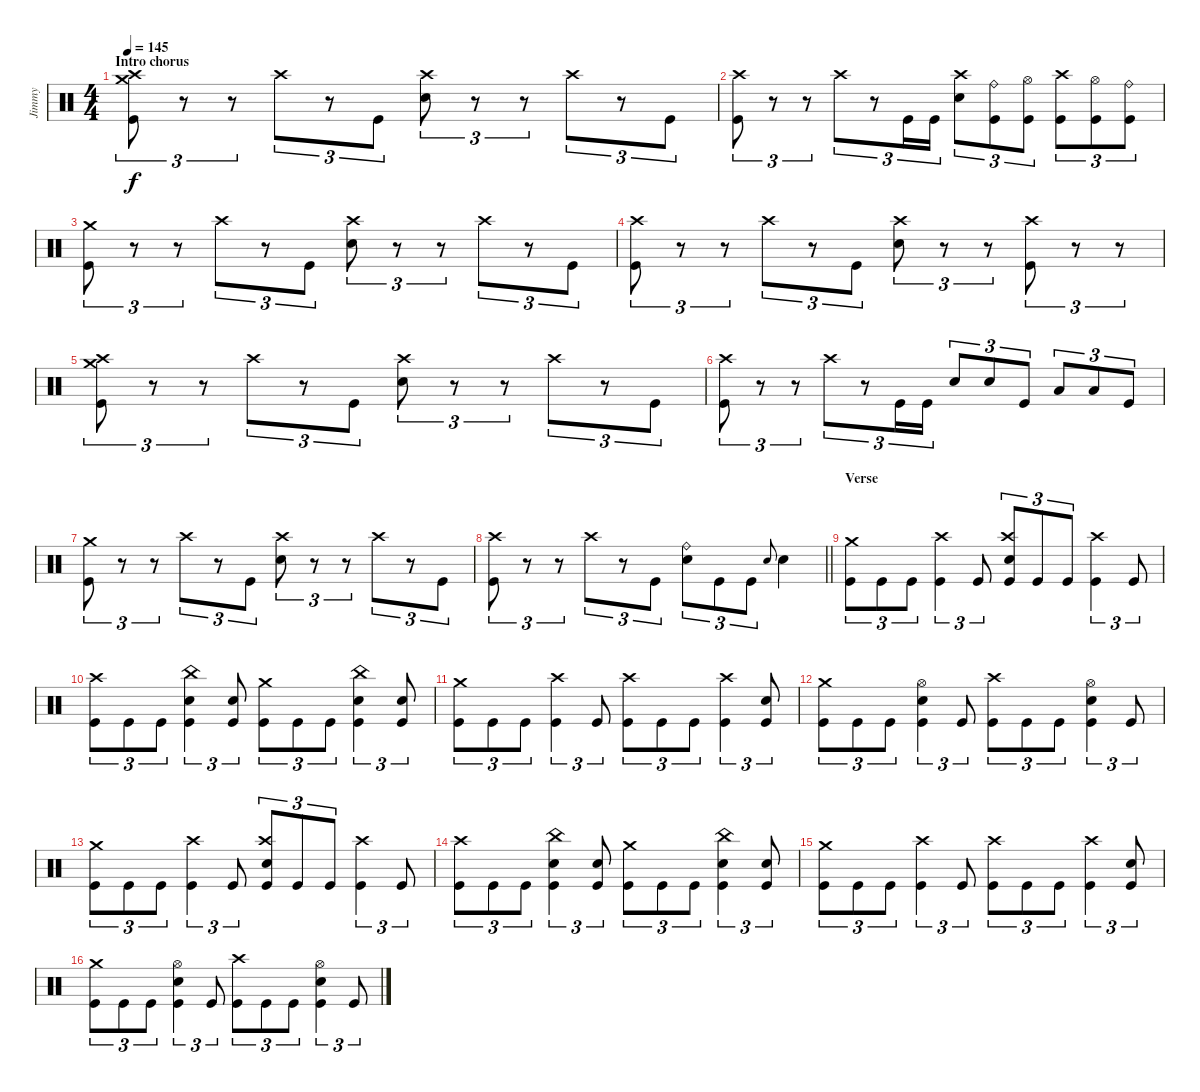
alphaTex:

\track ("Jimmy" "Jimmy") {instrument percussion}
\staff {score}
\articulation defaults
\ts (4 4)
\section ("" "Intro chorus")
\tempo 145
\clef neutral
\ks c
("Kick (hit)" "Crash high (hit)" "Crash medium (hit)").8{tu (3 2) dy f} r.8{tu (3 2)} r.8{tu (3 2)} "Crash high (hit)".8{tu (3 2)} r.8{tu (3 2)} "Kick (hit)".8{tu (3 2)} ("Crash high (hit)" "Snare (hit) 2").8{tu (3 2)} r.8{tu (3 2)} r.8{tu (3 2)} "Crash high (hit)".8{tu (3 2)} r.8{tu (3 2)} "Kick (hit)".8{tu (3 2)} |
("Kick (hit)" "Crash high (hit)").8{tu (3 2)} r.8{tu (3 2)} r.8{tu (3 2)} "Crash high (hit)".8{tu (3 2)} r.8{tu (3 2)} "Kick (hit)".16{tu (3 2)} "Kick (hit)".16{tu (3 2)} ("Crash high (hit)" "Snare (hit) 2").8{tu (3 2)} ("Kick (hit)" "Ride (bell)").8{tu (3 2)} ("Kick (hit)" "Hi-Hat (open)").8{tu (3 2)} ("Crash high (hit)" "Kick (hit)").8{tu (3 2)} ("Kick (hit)" "Hi-Hat (open)").8{tu (3 2)} ("Kick (hit)" "Ride (bell)").8{tu (3 2)} |
("Kick (hit)" "Crash medium (hit)").8{tu (3 2)} r.8{tu (3 2)} r.8{tu (3 2)} "Crash high (hit)".8{tu (3 2)} r.8{tu (3 2)} "Kick (hit)".8{tu (3 2)} ("Crash high (hit)" "Snare (hit) 2").8{tu (3 2)} r.8{tu (3 2)} r.8{tu (3 2)} "Crash high (hit)".8{tu (3 2)} r.8{tu (3 2)} "Kick (hit)".8{tu (3 2)} |
("Kick (hit)" "Crash high (hit)").8{tu (3 2)} r.8{tu (3 2)} r.8{tu (3 2)} "Crash high (hit)".8{tu (3 2)} r.8{tu (3 2)} "Kick (hit)".8{tu (3 2)} ("Crash high (hit)" "Snare (hit) 2").8{tu (3 2)} r.8{tu (3 2)} r.8{tu (3 2)} ("Crash high (hit)" "Kick (hit)").8{tu (3 2)} r.8{tu (3 2)} r.8{tu (3 2)} |
("Kick (hit)" "Crash high (hit)" "Crash medium (hit)").8{tu (3 2)} r.8{tu (3 2)} r.8{tu (3 2)} "Crash high (hit)".8{tu (3 2)} r.8{tu (3 2)} "Kick (hit)".8{tu (3 2)} ("Crash high (hit)" "Snare (hit) 2").8{tu (3 2)} r.8{tu (3 2)} r.8{tu (3 2)} "Crash high (hit)".8{tu (3 2)} r.8{tu (3 2)} "Kick (hit)".8{tu (3 2)} |
("Kick (hit)" "Crash high (hit)").8{tu (3 2)} r.8{tu (3 2)} r.8{tu (3 2)} "Crash high (hit)".8{tu (3 2)} r.8{tu (3 2)} "Kick (hit)".16{tu (3 2)} "Kick (hit)".16{tu (3 2)} "Snare (hit) 2".8{tu (3 2)} "Snare (hit) 2".8{tu (3 2)} "Kick (hit)".8{tu (3 2)} "Low Tom (hit)".8{tu (3 2)} "Low Tom (hit)".8{tu (3 2)} "Kick (hit)".8{tu (3 2)} |
("Kick (hit)" "Crash medium (hit)").8{tu (3 2)} r.8{tu (3 2)} r.8{tu (3 2)} "Crash high (hit)".8{tu (3 2)} r.8{tu (3 2)} "Kick (hit)".8{tu (3 2)} ("Crash high (hit)" "Snare (hit) 2").8{tu (3 2)} r.8{tu (3 2)} r.8{tu (3 2)} "Crash high (hit)".8{tu (3 2)} r.8{tu (3 2)} "Kick (hit)".8{tu (3 2)} |
\barLineRight lightlight
("Kick (hit)" "Crash high (hit)").8{tu (3 2)} r.8{tu (3 2)} r.8{tu (3 2)} "Crash high (hit)".8{tu (3 2)} r.8{tu (3 2)} "Kick (hit)".8{tu (3 2)} ("Ride (bell)" "Snare (hit) 2").8{tu (3 2)} "Kick (hit)".8{tu (3 2)} "Kick (hit)".8{tu (3 2)} "Snare (hit) 2".8{gr onbeat} "Snare (hit) 2".4 |
\section ("" "Verse")
("Crash medium (hit)" "Kick (hit)").8{tu (3 2)} "Kick (hit)".8{tu (3 2)} "Kick (hit)".8{tu (3 2)} ("Kick (hit)" "Crash high (hit)").4{tu (3 2)} "Kick (hit)".8{tu (3 2)} ("Snare (hit) 2" "Kick (hit)" "Crash high (hit)").8{tu (3 2)} "Kick (hit)".8{tu (3 2)} "Kick (hit)".8{tu (3 2)} ("Kick (hit)" "Crash high (hit)").4{tu (3 2)} "Kick (hit)".8{tu (3 2)} |
("Kick (hit)" "Crash high (hit)").8{tu (3 2)} "Kick (hit)".8{tu (3 2)} "Kick (hit)".8{tu (3 2)} ("Snare (hit) 2" "China (hit)" "Kick (hit)").4{tu (3 2)} ("Snare (hit) 2" "Kick (hit)").8{tu (3 2)} ("Kick (hit)" "Crash medium (hit)").8{tu (3 2)} "Kick (hit)".8{tu (3 2)} "Kick (hit)".8{tu (3 2)} ("Snare (hit) 2" "China (hit)" "Kick (hit)").4{tu (3 2)} ("Snare (hit) 2" "Kick (hit)").8{tu (3 2)} |
("Crash medium (hit)" "Kick (hit)").8{tu (3 2)} "Kick (hit)".8{tu (3 2)} "Kick (hit)".8{tu (3 2)} ("Kick (hit)" "Crash high (hit)").4{tu (3 2)} "Kick (hit)".8{tu (3 2)} ("Kick (hit)" "Crash high (hit)").8{tu (3 2)} "Kick (hit)".8{tu (3 2)} "Kick (hit)".8{tu (3 2)} ("Kick (hit)" "Crash high (hit)").4{tu (3 2)} ("Kick (hit)" "Snare (hit) 2").8{tu (3 2)} |
("Crash medium (hit)" "Kick (hit)").8{tu (3 2)} "Kick (hit)".8{tu (3 2)} "Kick (hit)".8{tu (3 2)} ("Kick (hit)" "Hi-Hat (open)" "Snare (hit) 2").4{tu (3 2)} "Kick (hit)".8{tu (3 2)} ("Crash high (hit)" "Kick (hit)").8{tu (3 2)} "Kick (hit)".8{tu (3 2)} "Kick (hit)".8{tu (3 2)} ("Kick (hit)" "Hi-Hat (open)" "Snare (hit) 2").4{tu (3 2)} "Kick (hit)".8{tu (3 2)} |
("Crash medium (hit)" "Kick (hit)").8{tu (3 2)} "Kick (hit)".8{tu (3 2)} "Kick (hit)".8{tu (3 2)} ("Kick (hit)" "Crash high (hit)").4{tu (3 2)} "Kick (hit)".8{tu (3 2)} ("Snare (hit) 2" "Kick (hit)" "Crash high (hit)").8{tu (3 2)} "Kick (hit)".8{tu (3 2)} "Kick (hit)".8{tu (3 2)} ("Kick (hit)" "Crash high (hit)").4{tu (3 2)} "Kick (hit)".8{tu (3 2)} |
("Kick (hit)" "Crash high (hit)").8{tu (3 2)} "Kick (hit)".8{tu (3 2)} "Kick (hit)".8{tu (3 2)} ("Snare (hit) 2" "China (hit)" "Kick (hit)").4{tu (3 2)} ("Snare (hit) 2" "Kick (hit)").8{tu (3 2)} ("Kick (hit)" "Crash medium (hit)").8{tu (3 2)} "Kick (hit)".8{tu (3 2)} "Kick (hit)".8{tu (3 2)} ("Snare (hit) 2" "China (hit)" "Kick (hit)").4{tu (3 2)} ("Snare (hit) 2" "Kick (hit)").8{tu (3 2)} |
("Crash medium (hit)" "Kick (hit)").8{tu (3 2)} "Kick (hit)".8{tu (3 2)} "Kick (hit)".8{tu (3 2)} ("Kick (hit)" "Crash high (hit)").4{tu (3 2)} "Kick (hit)".8{tu (3 2)} ("Kick (hit)" "Crash high (hit)").8{tu (3 2)} "Kick (hit)".8{tu (3 2)} "Kick (hit)".8{tu (3 2)} ("Kick (hit)" "Crash high (hit)").4{tu (3 2)} ("Kick (hit)" "Snare (hit) 2").8{tu (3 2)} |
("Crash medium (hit)" "Kick (hit)").8{tu (3 2)} "Kick (hit)".8{tu (3 2)} "Kick (hit)".8{tu (3 2)} ("Kick (hit)" "Hi-Hat (open)" "Snare (hit) 2").4{tu (3 2)} "Kick (hit)".8{tu (3 2)} ("Crash high (hit)" "Kick (hit)").8{tu (3 2)} "Kick (hit)".8{tu (3 2)} "Kick (hit)".8{tu (3 2)} ("Kick (hit)" "Hi-Hat (open)" "Snare (hit) 2").4{tu (3 2)} "Kick (hit)".8{tu (3 2)}
